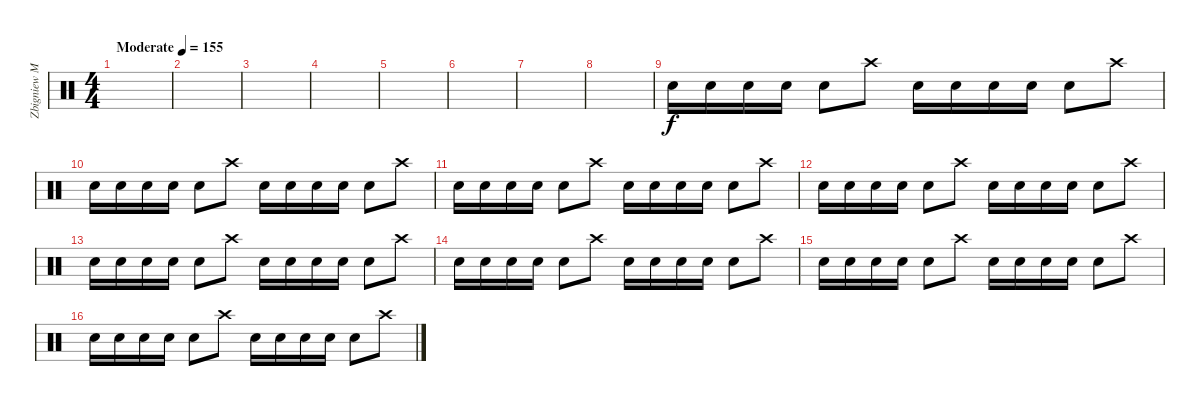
\track ("Zbigniew Musiński " "Zbigniew M") {instrument percussion}
\staff {score}
\articulation defaults
\ts (4 4)
\tempo (155 "Moderate")
\clef neutral
\ks c
|
|
|
|
|
|
|
|
"Snare (hit) 2".16 "Snare (hit) 2".16 "Snare (hit) 2".16 "Snare (hit) 2".16 "Snare (hit) 2".8 "Crash high (hit)".8 "Snare (hit) 2".16 "Snare (hit) 2".16 "Snare (hit) 2".16 "Snare (hit) 2".16 "Snare (hit) 2".8 "Crash high (hit)".8 |
"Snare (hit) 2".16 "Snare (hit) 2".16 "Snare (hit) 2".16 "Snare (hit) 2".16 "Snare (hit) 2".8 "Crash high (hit)".8 "Snare (hit) 2".16 "Snare (hit) 2".16 "Snare (hit) 2".16 "Snare (hit) 2".16 "Snare (hit) 2".8 "Crash high (hit)".8 |
"Snare (hit) 2".16 "Snare (hit) 2".16 "Snare (hit) 2".16 "Snare (hit) 2".16 "Snare (hit) 2".8 "Crash high (hit)".8 "Snare (hit) 2".16 "Snare (hit) 2".16 "Snare (hit) 2".16 "Snare (hit) 2".16 "Snare (hit) 2".8 "Crash high (hit)".8 |
"Snare (hit) 2".16 "Snare (hit) 2".16 "Snare (hit) 2".16 "Snare (hit) 2".16 "Snare (hit) 2".8 "Crash high (hit)".8 "Snare (hit) 2".16 "Snare (hit) 2".16 "Snare (hit) 2".16 "Snare (hit) 2".16 "Snare (hit) 2".8 "Crash high (hit)".8 |
"Snare (hit) 2".16 "Snare (hit) 2".16 "Snare (hit) 2".16 "Snare (hit) 2".16 "Snare (hit) 2".8 "Crash high (hit)".8 "Snare (hit) 2".16 "Snare (hit) 2".16 "Snare (hit) 2".16 "Snare (hit) 2".16 "Snare (hit) 2".8 "Crash high (hit)".8 |
"Snare (hit) 2".16 "Snare (hit) 2".16 "Snare (hit) 2".16 "Snare (hit) 2".16 "Snare (hit) 2".8 "Crash high (hit)".8 "Snare (hit) 2".16 "Snare (hit) 2".16 "Snare (hit) 2".16 "Snare (hit) 2".16 "Snare (hit) 2".8 "Crash high (hit)".8 |
"Snare (hit) 2".16 "Snare (hit) 2".16 "Snare (hit) 2".16 "Snare (hit) 2".16 "Snare (hit) 2".8 "Crash high (hit)".8 "Snare (hit) 2".16 "Snare (hit) 2".16 "Snare (hit) 2".16 "Snare (hit) 2".16 "Snare (hit) 2".8 "Crash high (hit)".8 |
"Snare (hit) 2".16 "Snare (hit) 2".16 "Snare (hit) 2".16 "Snare (hit) 2".16 "Snare (hit) 2".8 "Crash high (hit)".8 "Snare (hit) 2".16 "Snare (hit) 2".16 "Snare (hit) 2".16 "Snare (hit) 2".16 "Snare (hit) 2".8 "Crash high (hit)".8
